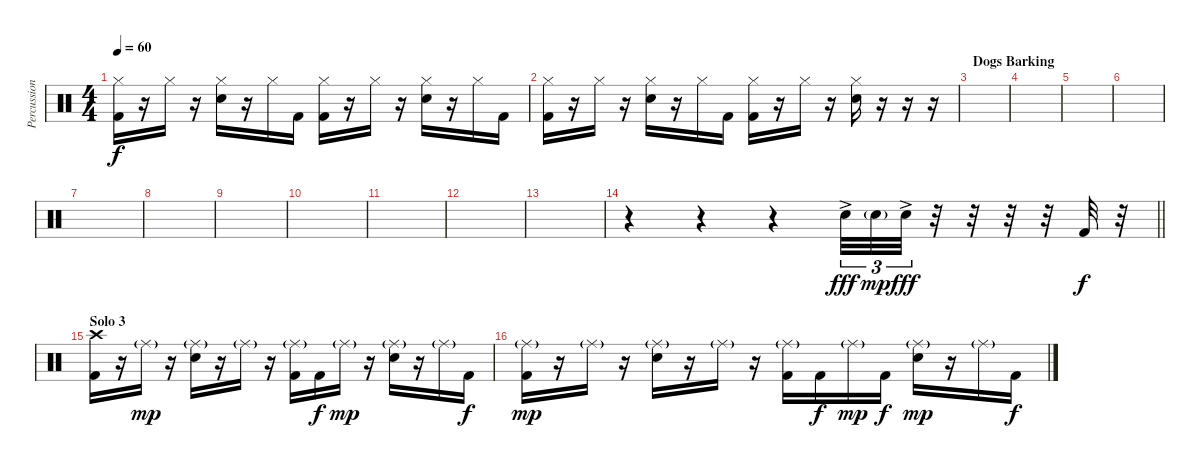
\track ("Percussion" "Percussion") {instrument percussion}
\staff {score}
\articulation defaults
\ts (4 4)
\tempo 60
\clef neutral
\ks c
("Hi-Hat (closed)" "Kick (hit) 2").16{dy f balance 8} r.16 "Hi-Hat (closed)".16 r.16 ("Hi-Hat (closed)" "Snare (hit) 2").16 r.16 "Hi-Hat (closed)".16 "Kick (hit) 2".16 ("Hi-Hat (closed)" "Kick (hit) 2").16 r.16 "Hi-Hat (closed)".16 r.16 ("Hi-Hat (closed)" "Snare (hit) 2").16 r.16 "Hi-Hat (closed)".16 "Kick (hit) 2".16 |
("Hi-Hat (closed)" "Kick (hit) 2").16{balance 8} r.16 "Hi-Hat (closed)".16 r.16 ("Hi-Hat (closed)" "Snare (hit) 2").16 r.16 "Hi-Hat (closed)".16 "Kick (hit) 2".16 ("Hi-Hat (closed)" "Kick (hit) 2").16 r.16 "Hi-Hat (closed)".16 r.16 ("Hi-Hat (closed)" "Snare (hit) 2").16 r.16 r.16 r.16 |
\section ("" "Dogs Barking")
|
|
|
|
|
|
|
|
|
|
|
\barLineRight lightlight
r.4 r.4 r.4 "Snare (hit) 2"{ac}.32{tu (3 2) dy fff} "Snare (hit) 2"{g}.32{tu (3 2) dy mp} "Snare (hit) 2"{ac}.32{tu (3 2) dy fff} r.32 r.32 r.32 r.32 "Kick (hit) 2".32{dy f} r.32 |
\section ("" "Solo 3")
("Crash high (hit)" "Kick (hit) 2").16 r.16 "Ride (middle)"{g}.16{dy mp} r.16 ("Ride (middle)"{g} "Snare (hit) 2").16 r.16 "Ride (middle)"{g}.16 r.16 ("Ride (middle)"{g} "Kick (hit) 2").16 "Kick (hit) 2".16{dy f} "Ride (middle)"{g}.16{dy mp} r.16 ("Ride (middle)"{g} "Snare (hit) 2").16 r.16 "Ride (middle)"{g}.16 "Kick (hit) 2".16{dy f} |
("Ride (middle)"{g} "Kick (hit) 2").16{dy mp} r.16 "Ride (middle)"{g}.16 r.16 ("Ride (middle)"{g} "Snare (hit) 2").16 r.16 "Ride (middle)"{g}.16 r.16 ("Ride (middle)"{g} "Kick (hit) 2").16 "Kick (hit) 2".16{dy f} "Ride (middle)"{g}.16{dy mp} "Kick (hit) 2".16{dy f} ("Ride (middle)"{g} "Snare (hit) 2").16{dy mp} r.16 "Ride (middle)"{g}.16 "Kick (hit) 2".16{dy f}
